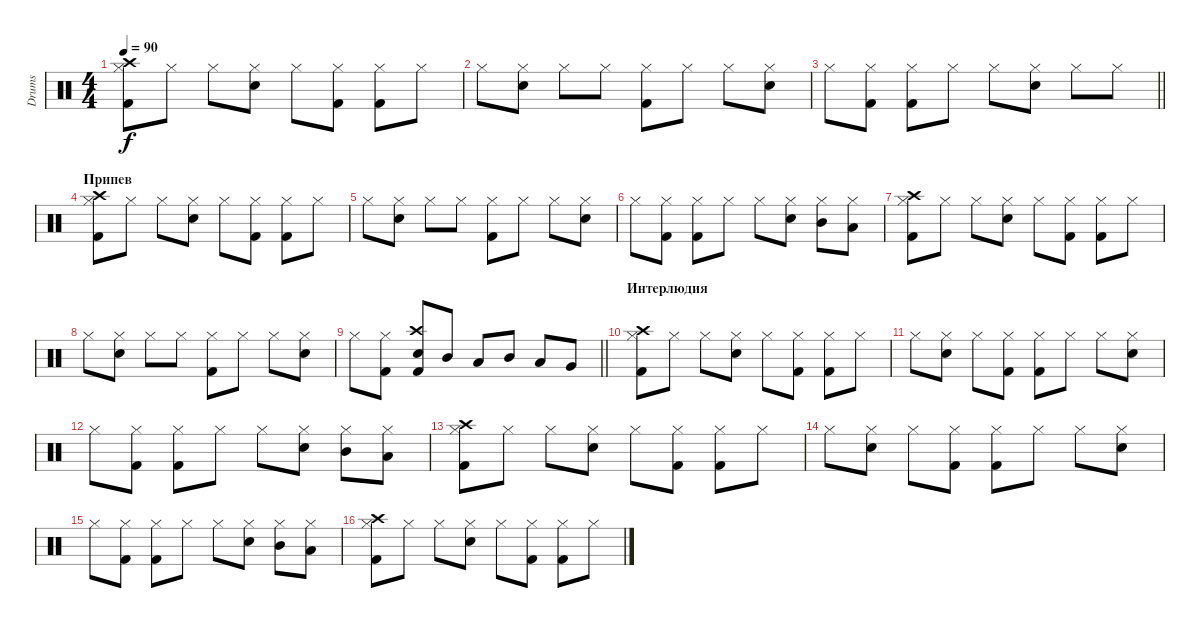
\track ("Drums" "Drums") {instrument percussion}
\staff {score}
\articulation defaults
\ts (4 4)
\tempo 90
\clef neutral
\ks c
("Hi-Hat (closed)" "Kick (hit) 2" "Crash high (hit)").8{dy f} "Hi-Hat (closed)".8 "Hi-Hat (closed)".8 ("Hi-Hat (closed)" "Electric Snare (hit)").8 "Hi-Hat (closed)".8 ("Hi-Hat (closed)" "Kick (hit) 2").8 ("Hi-Hat (closed)" "Kick (hit) 2").8 "Hi-Hat (closed)".8 |
"Hi-Hat (closed)".8 ("Hi-Hat (closed)" "Electric Snare (hit)").8 "Hi-Hat (closed)".8 "Hi-Hat (closed)".8 ("Hi-Hat (closed)" "Kick (hit) 2").8 "Hi-Hat (closed)".8 "Hi-Hat (closed)".8 ("Hi-Hat (closed)" "Electric Snare (hit)").8 |
\barLineRight lightlight "Hi-Hat (closed)".8
("Hi-Hat (closed)" "Kick (hit) 2").8 ("Hi-Hat (closed)" "Kick (hit) 2").8 "Hi-Hat (closed)".8 "Hi-Hat (closed)".8 ("Hi-Hat (closed)" "Electric Snare (hit)").8 "Hi-Hat (closed)".8 "Hi-Hat (closed)".8 |
\section ("" "Припев")
("Hi-Hat (closed)" "Kick (hit) 2" "Crash high (hit)").8 "Hi-Hat (closed)".8 "Hi-Hat (closed)".8 ("Hi-Hat (closed)" "Electric Snare (hit)").8 "Hi-Hat (closed)".8 ("Hi-Hat (closed)" "Kick (hit) 2").8 ("Hi-Hat (closed)" "Kick (hit) 2").8 "Hi-Hat (closed)".8 |
"Hi-Hat (closed)".8 ("Hi-Hat (closed)" "Electric Snare (hit)").8 "Hi-Hat (closed)".8 "Hi-Hat (closed)".8 ("Hi-Hat (closed)" "Kick (hit) 2").8 "Hi-Hat (closed)".8 "Hi-Hat (closed)".8 ("Hi-Hat (closed)" "Electric Snare (hit)").8 |
"Hi-Hat (closed)".8 ("Hi-Hat (closed)" "Kick (hit) 2").8 ("Hi-Hat (closed)" "Kick (hit) 2").8 "Hi-Hat (closed)".8 "Hi-Hat (closed)".8 ("Hi-Hat (closed)" "Electric Snare (hit)").8 ("Hi-Hat (closed)" "Mid Tom (hit)").8 ("Hi-Hat (closed)" "Low Tom (hit)").8 |
("Hi-Hat (closed)" "Kick (hit) 2" "Crash high (hit)").8 "Hi-Hat (closed)".8 "Hi-Hat (closed)".8 ("Hi-Hat (closed)" "Electric Snare (hit)").8 "Hi-Hat (closed)".8 ("Hi-Hat (closed)" "Kick (hit) 2").8 ("Hi-Hat (closed)" "Kick (hit) 2").8 "Hi-Hat (closed)".8 |
"Hi-Hat (closed)".8 ("Hi-Hat (closed)" "Electric Snare (hit)").8 "Hi-Hat (closed)".8 "Hi-Hat (closed)".8 ("Hi-Hat (closed)" "Kick (hit) 2").8 "Hi-Hat (closed)".8 "Hi-Hat (closed)".8 ("Hi-Hat (closed)" "Electric Snare (hit)").8 |
\barLineRight lightlight "Hi-Hat (closed)".8
("Hi-Hat (closed)" "Kick (hit) 2").8 ("Kick (hit) 2" "Electric Snare (hit)" "Crash high (hit)").8 "Mid Tom (hit)".8 "Low Tom (hit)".8 "Mid Tom (hit)".8 "Low Tom (hit)".8 "Very Low Tom (hit)".8 |
\section ("" "Интерлюдия")
("Hi-Hat (closed)" "Kick (hit) 2" "Crash high (hit)").8 "Hi-Hat (closed)".8 "Hi-Hat (closed)".8 ("Hi-Hat (closed)" "Electric Snare (hit)").8 "Hi-Hat (closed)".8 ("Hi-Hat (closed)" "Kick (hit) 2").8 ("Hi-Hat (closed)" "Kick (hit) 2").8 "Hi-Hat (closed)".8 |
"Hi-Hat (closed)".8 ("Hi-Hat (closed)" "Electric Snare (hit)").8 "Hi-Hat (closed)".8 ("Hi-Hat (closed)" "Kick (hit) 2").8 ("Hi-Hat (closed)" "Kick (hit) 2").8 "Hi-Hat (closed)".8 "Hi-Hat (closed)".8 ("Hi-Hat (closed)" "Electric Snare (hit)").8 |
"Hi-Hat (closed)".8 ("Hi-Hat (closed)" "Kick (hit) 2").8 ("Hi-Hat (closed)" "Kick (hit) 2").8 "Hi-Hat (closed)".8 "Hi-Hat (closed)".8 ("Hi-Hat (closed)" "Electric Snare (hit)").8 ("Hi-Hat (closed)" "Mid Tom (hit)").8 ("Hi-Hat (closed)" "Low Tom (hit)").8 |
("Hi-Hat (closed)" "Kick (hit) 2" "Crash high (hit)").8 "Hi-Hat (closed)".8 "Hi-Hat (closed)".8 ("Hi-Hat (closed)" "Electric Snare (hit)").8 "Hi-Hat (closed)".8 ("Hi-Hat (closed)" "Kick (hit) 2").8 ("Hi-Hat (closed)" "Kick (hit) 2").8 "Hi-Hat (closed)".8 |
"Hi-Hat (closed)".8 ("Hi-Hat (closed)" "Electric Snare (hit)").8 "Hi-Hat (closed)".8 ("Hi-Hat (closed)" "Kick (hit) 2").8 ("Hi-Hat (closed)" "Kick (hit) 2").8 "Hi-Hat (closed)".8 "Hi-Hat (closed)".8 ("Hi-Hat (closed)" "Electric Snare (hit)").8 |
"Hi-Hat (closed)".8 ("Hi-Hat (closed)" "Kick (hit) 2").8 ("Hi-Hat (closed)" "Kick (hit) 2").8 "Hi-Hat (closed)".8 "Hi-Hat (closed)".8 ("Hi-Hat (closed)" "Electric Snare (hit)").8 ("Hi-Hat (closed)" "Mid Tom (hit)").8 ("Hi-Hat (closed)" "Low Tom (hit)").8 |
("Hi-Hat (closed)" "Kick (hit) 2" "Crash high (hit)").8 "Hi-Hat (closed)".8 "Hi-Hat (closed)".8 ("Hi-Hat (closed)" "Electric Snare (hit)").8 "Hi-Hat (closed)".8 ("Hi-Hat (closed)" "Kick (hit) 2").8 ("Hi-Hat (closed)" "Kick (hit) 2").8 "Hi-Hat (closed)".8
